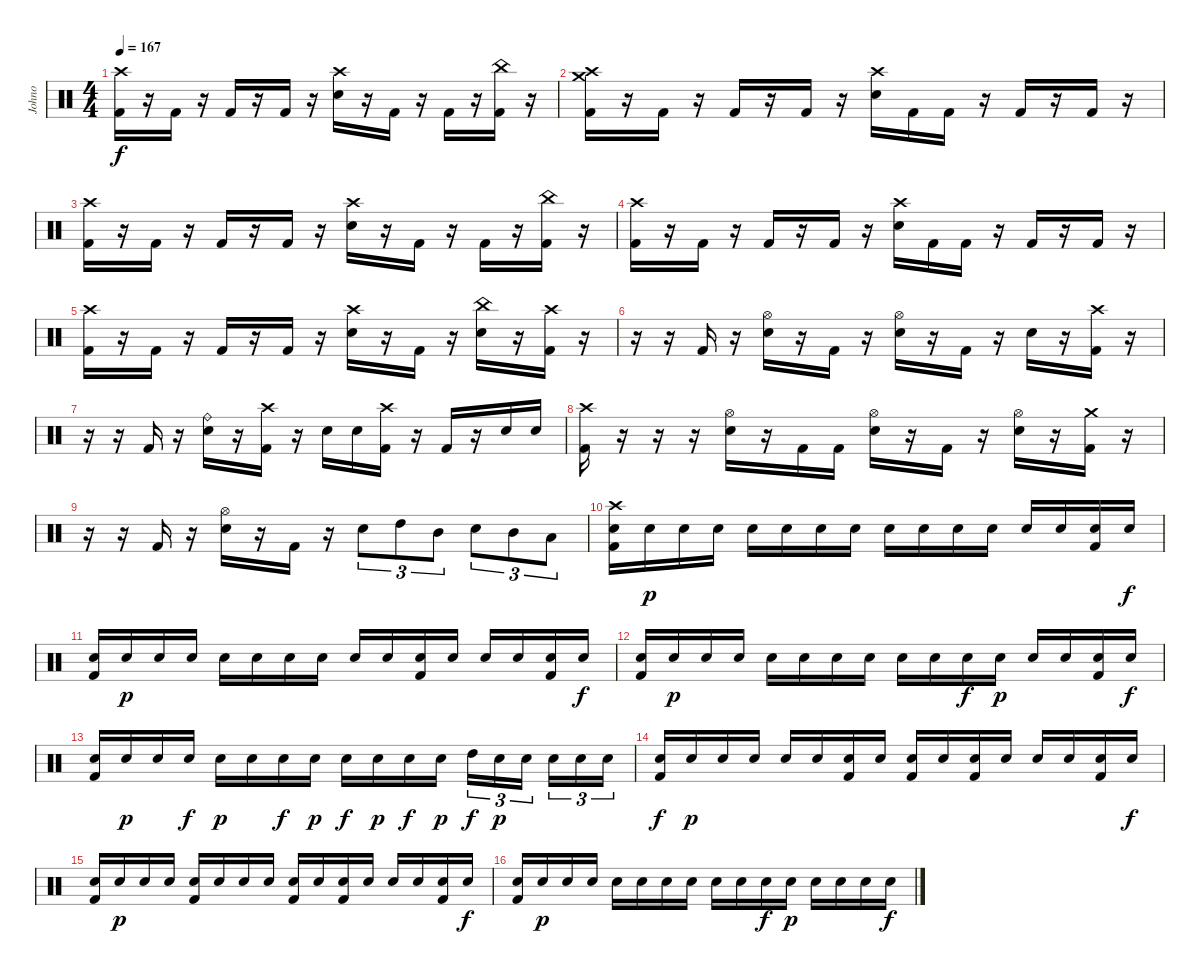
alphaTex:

\track ("Johno" "Johno") {instrument percussion}
\staff {score}
\articulation defaults
\ts (4 4)
\tempo 167
\clef neutral
\ks c
("Crash high (hit)" "Kick (hit) 2").16{dy f} r.16 "Kick (hit) 2".16 r.16 "Kick (hit) 2".16 r.16 "Kick (hit) 2".16 r.16 ("Crash high (hit)" "Electric Snare (hit)").16 r.16 "Kick (hit) 2".16 r.16 "Kick (hit) 2".16 r.16 ("China (hit)" "Kick (hit) 2").16 r.16 |
("Crash high (hit)" "Crash medium (hit)" "Kick (hit) 2").16 r.16 "Kick (hit) 2".16 r.16 "Kick (hit) 2".16 r.16 "Kick (hit) 2".16 r.16 ("Crash high (hit)" "Electric Snare (hit)").16 "Kick (hit) 2".16 "Kick (hit) 2".16 r.16 "Kick (hit) 2".16 r.16 "Kick (hit) 2".16 r.16 |
("Crash high (hit)" "Kick (hit) 2").16 r.16 "Kick (hit) 2".16 r.16 "Kick (hit) 2".16 r.16 "Kick (hit) 2".16 r.16 ("Crash high (hit)" "Electric Snare (hit)").16 r.16 "Kick (hit) 2".16 r.16 "Kick (hit) 2".16 r.16 ("China (hit)" "Kick (hit) 2").16 r.16 |
("Crash high (hit)" "Kick (hit) 2").16 r.16 "Kick (hit) 2".16 r.16 "Kick (hit) 2".16 r.16 "Kick (hit) 2".16 r.16 ("Crash high (hit)" "Electric Snare (hit)").16 "Kick (hit) 2".16 "Kick (hit) 2".16 r.16 "Kick (hit) 2".16 r.16 "Kick (hit) 2".16 r.16 |
("Crash high (hit)" "Kick (hit) 2").16 r.16 "Kick (hit) 2".16 r.16 "Kick (hit) 2".16 r.16 "Kick (hit) 2".16 r.16 ("Crash high (hit)" "Electric Snare (hit)").16 r.16 "Kick (hit) 2".16 r.16 ("China (hit)" "Electric Snare (hit)").16 r.16 ("Crash high (hit)" "Kick (hit) 2").16 r.16 |
r.16 r.16 "Kick (hit) 2".16 r.16 ("Hi-Hat (open)" "Electric Snare (hit)").16 r.16 "Kick (hit) 2".16 r.16 ("Hi-Hat (open)" "Electric Snare (hit)").16 r.16 "Kick (hit) 2".16 r.16 "Electric Snare (hit)".16 r.16 ("Crash high (hit)" "Kick (hit) 2").16 r.16 |
r.16 r.16 "Kick (hit) 2".16 r.16 ("Ride (bell)" "Electric Snare (hit)").16 r.16 ("Crash high (hit)" "Kick (hit) 2").16 r.16 "Electric Snare (hit)".16 "Electric Snare (hit)".16 ("Crash high (hit)" "Kick (hit) 2").16 r.16 "Kick (hit) 2".16 r.16 "Electric Snare (hit)".16 "Electric Snare (hit)".16 |
("Crash high (hit)" "Kick (hit) 2").16 r.16 r.16 r.16 ("Hi-Hat (open)" "Electric Snare (hit)").16 r.16 "Kick (hit) 2".16 "Kick (hit) 2".16 ("Hi-Hat (open)" "Electric Snare (hit)").16 r.16 "Kick (hit) 2".16 r.16 ("Hi-Hat (open)" "Electric Snare (hit)").16 r.16 ("Crash medium (hit)" "Kick (hit) 2").16 r.16 |
r.16 r.16 "Kick (hit) 2".16 r.16 ("Hi-Hat (open)" "Electric Snare (hit)").16 r.16 "Kick (hit) 2".16 r.16 "Electric Snare (hit)".8{tu (3 2)} "High Tom (hit)".8{tu (3 2)} "Mid Tom (hit)".8{tu (3 2)} "Electric Snare (hit)".8{tu (3 2)} "Mid Tom (hit)".8{tu (3 2)} "Low Floor Tom (hit)".8{tu (3 2)} |
("Crash high (hit)" "Electric Snare (hit)" "Kick (hit) 2").16 "Electric Snare (hit)".16{dy p} "Electric Snare (hit)".16 "Electric Snare (hit)".16 "Electric Snare (hit)".16 "Electric Snare (hit)".16 "Electric Snare (hit)".16 "Electric Snare (hit)".16 "Electric Snare (hit)".16 "Electric Snare (hit)".16 "Electric Snare (hit)".16 "Electric Snare (hit)".16 "Electric Snare (hit)".16 "Electric Snare (hit)".16 ("Electric Snare (hit)" "Kick (hit) 2").16 "Electric Snare (hit)".16{dy f} |
("Electric Snare (hit)" "Kick (hit) 2").16 "Electric Snare (hit)".16{dy p} "Electric Snare (hit)".16 "Electric Snare (hit)".16 "Electric Snare (hit)".16 "Electric Snare (hit)".16 "Electric Snare (hit)".16 "Electric Snare (hit)".16 "Electric Snare (hit)".16 "Electric Snare (hit)".16 ("Electric Snare (hit)" "Kick (hit) 2").16 "Electric Snare (hit)".16 "Electric Snare (hit)".16 "Electric Snare (hit)".16 ("Electric Snare (hit)" "Kick (hit) 2").16 "Electric Snare (hit)".16{dy f} |
("Electric Snare (hit)" "Kick (hit) 2").16 "Electric Snare (hit)".16{dy p} "Electric Snare (hit)".16 "Electric Snare (hit)".16 "Electric Snare (hit)".16 "Electric Snare (hit)".16 "Electric Snare (hit)".16 "Electric Snare (hit)".16 "Electric Snare (hit)".16 "Electric Snare (hit)".16 "Electric Snare (hit)".16{dy f} "Electric Snare (hit)".16{dy p} "Electric Snare (hit)".16 "Electric Snare (hit)".16 ("Electric Snare (hit)" "Kick (hit) 2").16 "Electric Snare (hit)".16{dy f} |
("Electric Snare (hit)" "Kick (hit) 2").16 "Electric Snare (hit)".16{dy p} "Electric Snare (hit)".16 "Electric Snare (hit)".16{dy f} "Electric Snare (hit)".16{dy p} "Electric Snare (hit)".16 "Electric Snare (hit)".16{dy f} "Electric Snare (hit)".16{dy p} "Electric Snare (hit)".16{dy f} "Electric Snare (hit)".16{dy p} "Electric Snare (hit)".16{dy f} "Electric Snare (hit)".16{dy p} "High Tom (hit)".16{tu (3 2) dy f} "Electric Snare (hit)".16{tu (3 2) dy p} "Electric Snare (hit)".16{tu (3 2) beam splitsecondary} "Electric Snare (hit)".16{tu (3 2)} "Electric Snare (hit)".16{tu (3 2)} "Electric Snare (hit)".16{tu (3 2)} |
("Electric Snare (hit)" "Kick (hit) 2").16{dy f} "Electric Snare (hit)".16{dy p} "Electric Snare (hit)".16 "Electric Snare (hit)".16 "Electric Snare (hit)".16 "Electric Snare (hit)".16 ("Electric Snare (hit)" "Kick (hit) 2").16 "Electric Snare (hit)".16 ("Electric Snare (hit)" "Kick (hit) 2").16 "Electric Snare (hit)".16 ("Electric Snare (hit)" "Kick (hit) 2").16 "Electric Snare (hit)".16 "Electric Snare (hit)".16 "Electric Snare (hit)".16 ("Electric Snare (hit)" "Kick (hit) 2").16 "Electric Snare (hit)".16{dy f} |
("Electric Snare (hit)" "Kick (hit) 2").16 "Electric Snare (hit)".16{dy p} "Electric Snare (hit)".16 "Electric Snare (hit)".16 ("Electric Snare (hit)" "Kick (hit) 2").16 "Electric Snare (hit)".16 "Electric Snare (hit)".16 "Electric Snare (hit)".16 ("Electric Snare (hit)" "Kick (hit) 2").16 "Electric Snare (hit)".16 ("Electric Snare (hit)" "Kick (hit) 2").16 "Electric Snare (hit)".16 "Electric Snare (hit)".16 "Electric Snare (hit)".16 ("Electric Snare (hit)" "Kick (hit) 2").16 "Electric Snare (hit)".16{dy f} |
("Electric Snare (hit)" "Kick (hit) 2").16 "Electric Snare (hit)".16{dy p} "Electric Snare (hit)".16 "Electric Snare (hit)".16 "Electric Snare (hit)".16 "Electric Snare (hit)".16 "Electric Snare (hit)".16 "Electric Snare (hit)".16 "Electric Snare (hit)".16 "Electric Snare (hit)".16 "Electric Snare (hit)".16{dy f} "Electric Snare (hit)".16{dy p} "Electric Snare (hit)".16 "Electric Snare (hit)".16 "Electric Snare (hit)".16 "Electric Snare (hit)".16{dy f}
